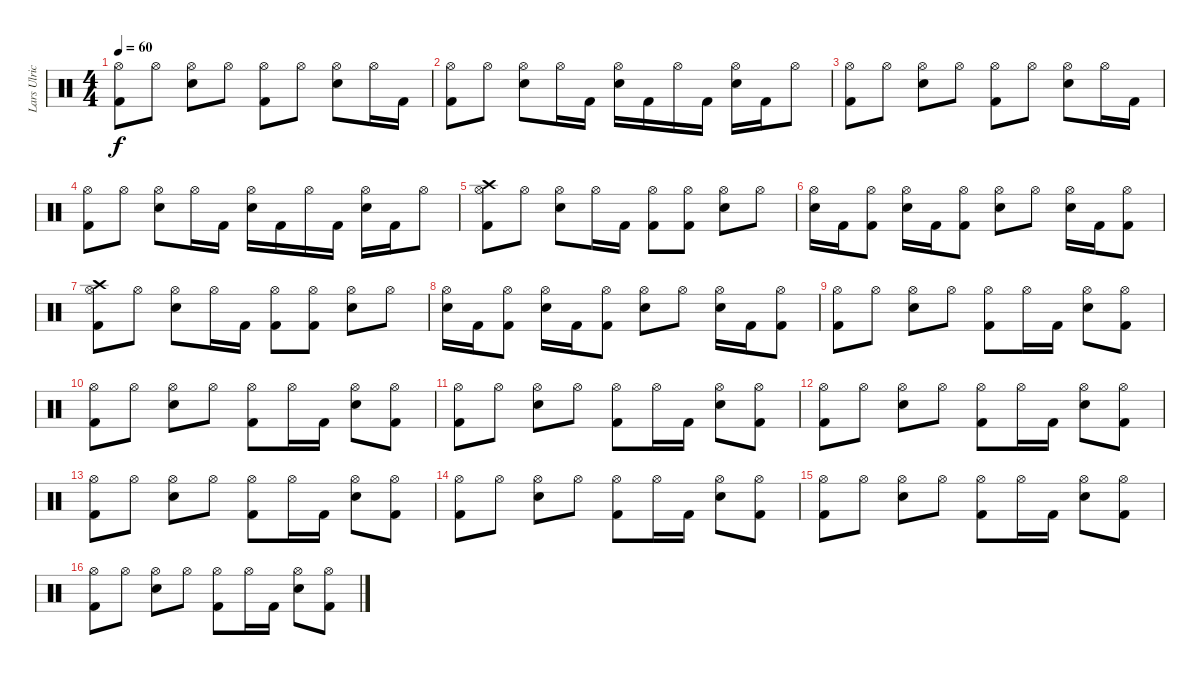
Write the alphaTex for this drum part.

\track ("Lars Ulrich" "Lars Ulric") {instrument percussion}
\staff {score}
\articulation defaults
\ts (4 4)
\tempo 60
\clef neutral
\ks c
("Kick (hit) 2" "Hi-Hat (open)").8{dy f} "Hi-Hat (open)".8 ("Snare (hit) 2" "Hi-Hat (open)").8 "Hi-Hat (open)".8 ("Kick (hit) 2" "Hi-Hat (open)").8 "Hi-Hat (open)".8 ("Snare (hit) 2" "Hi-Hat (open)").8 "Hi-Hat (open)".16 "Kick (hit) 2".16 |
("Kick (hit) 2" "Hi-Hat (open)").8 "Hi-Hat (open)".8 ("Snare (hit) 2" "Hi-Hat (open)").8 "Hi-Hat (open)".16 "Kick (hit) 2".16 ("Snare (hit) 2" "Hi-Hat (open)").16 "Kick (hit) 2".16 "Hi-Hat (open)".16 "Kick (hit) 2".16 ("Snare (hit) 2" "Hi-Hat (open)").16 "Kick (hit) 2".16 "Hi-Hat (open)".8 |
("Kick (hit) 2" "Hi-Hat (open)").8 "Hi-Hat (open)".8 ("Snare (hit) 2" "Hi-Hat (open)").8 "Hi-Hat (open)".8 ("Kick (hit) 2" "Hi-Hat (open)").8 "Hi-Hat (open)".8 ("Snare (hit) 2" "Hi-Hat (open)").8 "Hi-Hat (open)".16 "Kick (hit) 2".16 |
("Kick (hit) 2" "Hi-Hat (open)").8 "Hi-Hat (open)".8 ("Snare (hit) 2" "Hi-Hat (open)").8 "Hi-Hat (open)".16 "Kick (hit) 2".16 ("Snare (hit) 2" "Hi-Hat (open)").16 "Kick (hit) 2".16 "Hi-Hat (open)".16 "Kick (hit) 2".16 ("Snare (hit) 2" "Hi-Hat (open)").16 "Kick (hit) 2".16 "Hi-Hat (open)".8 |
("Kick (hit) 2" "Hi-Hat (open)" "Crash high (hit)").8 "Hi-Hat (open)".8 ("Snare (hit) 2" "Hi-Hat (open)").8 "Hi-Hat (open)".16 "Kick (hit) 2".16 ("Kick (hit) 2" "Hi-Hat (open)").8 ("Kick (hit) 2" "Hi-Hat (open)").8 ("Snare (hit) 2" "Hi-Hat (open)").8 "Hi-Hat (open)".8 |
("Snare (hit) 2" "Hi-Hat (open)").16 "Kick (hit) 2".16 ("Kick (hit) 2" "Hi-Hat (open)").8 ("Snare (hit) 2" "Hi-Hat (open)").16 "Kick (hit) 2".16 ("Kick (hit) 2" "Hi-Hat (open)").8 ("Snare (hit) 2" "Hi-Hat (open)").8 "Hi-Hat (open)".8 ("Snare (hit) 2" "Hi-Hat (open)").16 "Kick (hit) 2".16 ("Kick (hit) 2" "Hi-Hat (open)").8 |
("Kick (hit) 2" "Hi-Hat (open)" "Crash high (hit)").8 "Hi-Hat (open)".8 ("Snare (hit) 2" "Hi-Hat (open)").8 "Hi-Hat (open)".16 "Kick (hit) 2".16 ("Kick (hit) 2" "Hi-Hat (open)").8 ("Kick (hit) 2" "Hi-Hat (open)").8 ("Snare (hit) 2" "Hi-Hat (open)").8 "Hi-Hat (open)".8 |
("Snare (hit) 2" "Hi-Hat (open)").16 "Kick (hit) 2".16 ("Kick (hit) 2" "Hi-Hat (open)").8 ("Snare (hit) 2" "Hi-Hat (open)").16 "Kick (hit) 2".16 ("Kick (hit) 2" "Hi-Hat (open)").8 ("Snare (hit) 2" "Hi-Hat (open)").8 "Hi-Hat (open)".8 ("Snare (hit) 2" "Hi-Hat (open)").16 "Kick (hit) 2".16 ("Kick (hit) 2" "Hi-Hat (open)").8 |
("Kick (hit) 2" "Hi-Hat (open)").8 "Hi-Hat (open)".8 ("Snare (hit) 2" "Hi-Hat (open)").8 "Hi-Hat (open)".8 ("Kick (hit) 2" "Hi-Hat (open)").8 "Hi-Hat (open)".16 "Kick (hit) 2".16 ("Snare (hit) 2" "Hi-Hat (open)").8 ("Kick (hit) 2" "Hi-Hat (open)").8 |
("Kick (hit) 2" "Hi-Hat (open)").8 "Hi-Hat (open)".8 ("Snare (hit) 2" "Hi-Hat (open)").8 "Hi-Hat (open)".8 ("Kick (hit) 2" "Hi-Hat (open)").8 "Hi-Hat (open)".16 "Kick (hit) 2".16 ("Snare (hit) 2" "Hi-Hat (open)").8 ("Kick (hit) 2" "Hi-Hat (open)").8 |
("Kick (hit) 2" "Hi-Hat (open)").8 "Hi-Hat (open)".8 ("Snare (hit) 2" "Hi-Hat (open)").8 "Hi-Hat (open)".8 ("Kick (hit) 2" "Hi-Hat (open)").8 "Hi-Hat (open)".16 "Kick (hit) 2".16 ("Snare (hit) 2" "Hi-Hat (open)").8 ("Kick (hit) 2" "Hi-Hat (open)").8 |
("Kick (hit) 2" "Hi-Hat (open)").8 "Hi-Hat (open)".8 ("Snare (hit) 2" "Hi-Hat (open)").8 "Hi-Hat (open)".8 ("Kick (hit) 2" "Hi-Hat (open)").8 "Hi-Hat (open)".16 "Kick (hit) 2".16 ("Snare (hit) 2" "Hi-Hat (open)").8 ("Kick (hit) 2" "Hi-Hat (open)").8 |
("Kick (hit) 2" "Hi-Hat (open)").8 "Hi-Hat (open)".8 ("Snare (hit) 2" "Hi-Hat (open)").8 "Hi-Hat (open)".8 ("Kick (hit) 2" "Hi-Hat (open)").8 "Hi-Hat (open)".16 "Kick (hit) 2".16 ("Snare (hit) 2" "Hi-Hat (open)").8 ("Kick (hit) 2" "Hi-Hat (open)").8 |
("Kick (hit) 2" "Hi-Hat (open)").8 "Hi-Hat (open)".8 ("Snare (hit) 2" "Hi-Hat (open)").8 "Hi-Hat (open)".8 ("Kick (hit) 2" "Hi-Hat (open)").8 "Hi-Hat (open)".16 "Kick (hit) 2".16 ("Snare (hit) 2" "Hi-Hat (open)").8 ("Kick (hit) 2" "Hi-Hat (open)").8 |
("Kick (hit) 2" "Hi-Hat (open)").8 "Hi-Hat (open)".8 ("Snare (hit) 2" "Hi-Hat (open)").8 "Hi-Hat (open)".8 ("Kick (hit) 2" "Hi-Hat (open)").8 "Hi-Hat (open)".16 "Kick (hit) 2".16 ("Snare (hit) 2" "Hi-Hat (open)").8 ("Kick (hit) 2" "Hi-Hat (open)").8 |
("Kick (hit) 2" "Hi-Hat (open)").8 "Hi-Hat (open)".8 ("Snare (hit) 2" "Hi-Hat (open)").8 "Hi-Hat (open)".8 ("Kick (hit) 2" "Hi-Hat (open)").8 "Hi-Hat (open)".16 "Kick (hit) 2".16 ("Snare (hit) 2" "Hi-Hat (open)").8 ("Kick (hit) 2" "Hi-Hat (open)").8
